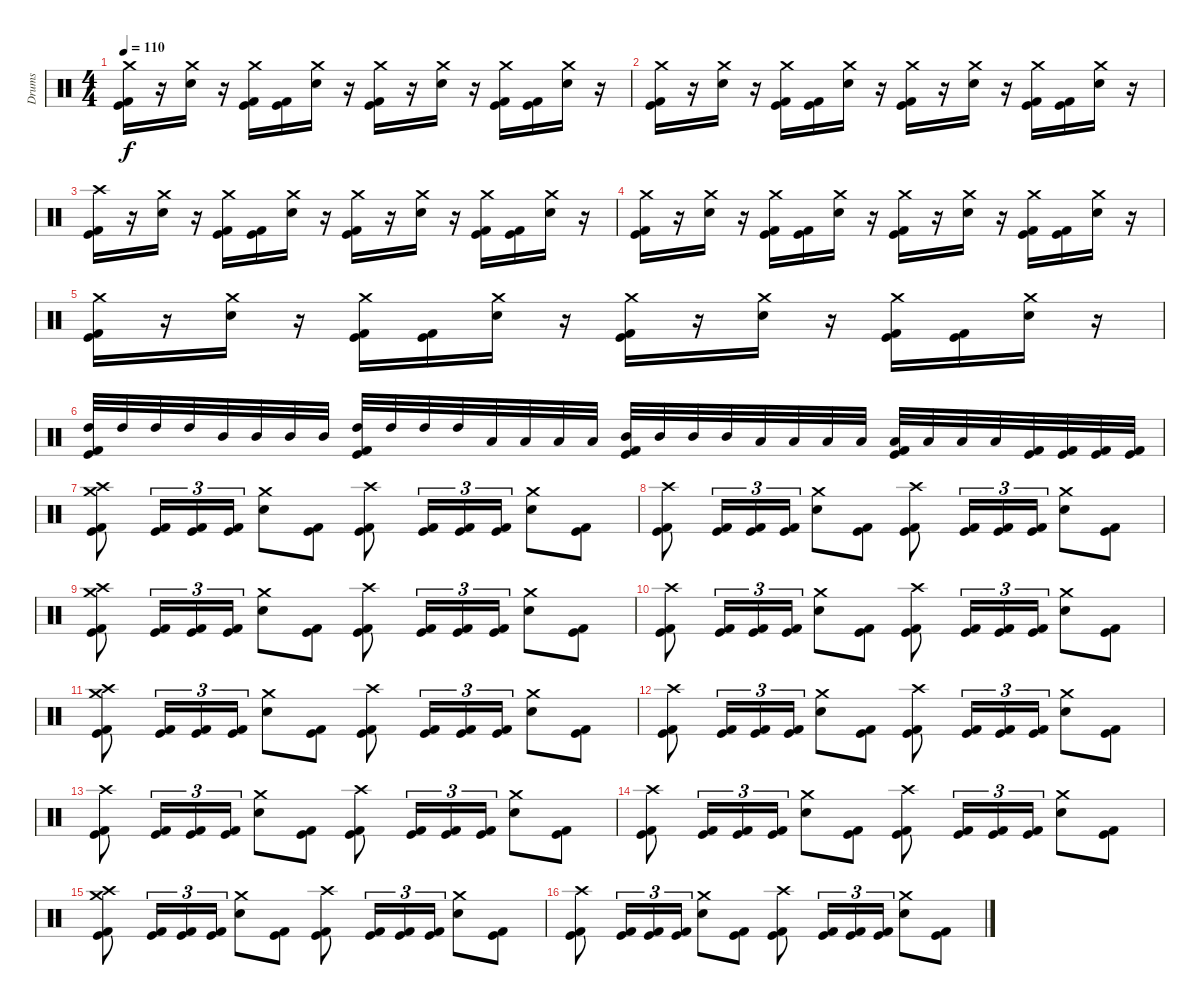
\track ("Drums" "Drums") {instrument percussion}
\staff {score}
\articulation defaults
\ts (4 4)
\tempo 110
\clef neutral
\ks c
("Crash medium (hit)" "Kick (hit)" "Kick (hit) 2").16{dy f} r.16 ("Crash medium (hit)" "Electric Snare (hit)").16 r.16 ("Crash medium (hit)" "Kick (hit)" "Kick (hit) 2").16 ("Kick (hit)" "Kick (hit) 2").16 ("Crash medium (hit)" "Electric Snare (hit)").16 r.16 ("Crash medium (hit)" "Kick (hit)" "Kick (hit) 2").16 r.16 ("Crash medium (hit)" "Electric Snare (hit)").16 r.16 ("Crash medium (hit)" "Kick (hit)" "Kick (hit) 2").16 ("Kick (hit)" "Kick (hit) 2").16 ("Crash medium (hit)" "Electric Snare (hit)").16 r.16 |
("Crash medium (hit)" "Kick (hit)" "Kick (hit) 2").16 r.16 ("Crash medium (hit)" "Electric Snare (hit)").16 r.16 ("Crash medium (hit)" "Kick (hit)" "Kick (hit) 2").16 ("Kick (hit)" "Kick (hit) 2").16 ("Crash medium (hit)" "Electric Snare (hit)").16 r.16 ("Crash medium (hit)" "Kick (hit)" "Kick (hit) 2").16 r.16 ("Crash medium (hit)" "Electric Snare (hit)").16 r.16 ("Crash medium (hit)" "Kick (hit)" "Kick (hit) 2").16 ("Kick (hit)" "Kick (hit) 2").16 ("Crash medium (hit)" "Electric Snare (hit)").16 r.16 |
("Crash high (hit)" "Kick (hit)" "Kick (hit) 2").16 r.16 ("Crash medium (hit)" "Electric Snare (hit)").16 r.16 ("Crash medium (hit)" "Kick (hit)" "Kick (hit) 2").16 ("Kick (hit)" "Kick (hit) 2").16 ("Crash medium (hit)" "Electric Snare (hit)").16 r.16 ("Crash medium (hit)" "Kick (hit)" "Kick (hit) 2").16 r.16 ("Crash medium (hit)" "Electric Snare (hit)").16 r.16 ("Crash medium (hit)" "Kick (hit)" "Kick (hit) 2").16 ("Kick (hit)" "Kick (hit) 2").16 ("Crash medium (hit)" "Electric Snare (hit)").16 r.16 |
("Crash medium (hit)" "Kick (hit)" "Kick (hit) 2").16 r.16 ("Crash medium (hit)" "Electric Snare (hit)").16 r.16 ("Crash medium (hit)" "Kick (hit)" "Kick (hit) 2").16 ("Kick (hit)" "Kick (hit) 2").16 ("Crash medium (hit)" "Electric Snare (hit)").16 r.16 ("Crash medium (hit)" "Kick (hit)" "Kick (hit) 2").16 r.16 ("Crash medium (hit)" "Electric Snare (hit)").16 r.16 ("Crash medium (hit)" "Kick (hit)" "Kick (hit) 2").16 ("Kick (hit)" "Kick (hit) 2").16 ("Crash medium (hit)" "Electric Snare (hit)").16 r.16 |
("Crash medium (hit)" "Kick (hit)" "Kick (hit) 2").16 r.16 ("Crash medium (hit)" "Electric Snare (hit)").16 r.16 ("Crash medium (hit)" "Kick (hit)" "Kick (hit) 2").16 ("Kick (hit)" "Kick (hit) 2").16 ("Crash medium (hit)" "Electric Snare (hit)").16 r.16 ("Crash medium (hit)" "Kick (hit)" "Kick (hit) 2").16 r.16 ("Crash medium (hit)" "Electric Snare (hit)").16 r.16 ("Crash medium (hit)" "Kick (hit)" "Kick (hit) 2").16 ("Kick (hit)" "Kick (hit) 2").16 ("Crash medium (hit)" "Electric Snare (hit)").16 r.16 |
("High Tom (hit)" "Kick (hit)" "Kick (hit) 2").32 "High Tom (hit)".32 "High Tom (hit)".32 "High Tom (hit)".32 "Mid Tom (hit)".32 "Mid Tom (hit)".32 "Mid Tom (hit)".32 "Mid Tom (hit)".32 ("High Tom (hit)" "Kick (hit)" "Kick (hit) 2").32 "High Tom (hit)".32 "High Tom (hit)".32 "High Tom (hit)".32 "Low Tom (hit)".32 "Low Tom (hit)".32 "Low Tom (hit)".32 "Low Tom (hit)".32 ("Mid Tom (hit)" "Kick (hit)" "Kick (hit) 2").32 "Mid Tom (hit)".32 "Mid Tom (hit)".32 "Mid Tom (hit)".32 "Low Floor Tom (hit)".32 "Low Floor Tom (hit)".32 "Low Floor Tom (hit)".32 "Low Floor Tom (hit)".32 ("Low Tom (hit)" "Kick (hit)" "Kick (hit) 2").32 "Low Tom (hit)".32 "Low Tom (hit)".32 "Low Tom (hit)".32 ("Kick (hit)" "Kick (hit) 2").32 ("Kick (hit)" "Kick (hit) 2").32 ("Kick (hit)" "Kick (hit) 2").32 ("Kick (hit)" "Kick (hit) 2").32 |
("Crash high (hit)" "Crash medium (hit)" "Kick (hit)" "Kick (hit) 2").8 ("Kick (hit)" "Kick (hit) 2").16{tu (3 2)} ("Kick (hit)" "Kick (hit) 2").16{tu (3 2)} ("Kick (hit)" "Kick (hit) 2").16{tu (3 2)} ("Crash medium (hit)" "Electric Snare (hit)").8 ("Kick (hit)" "Kick (hit) 2").8 ("Crash high (hit)" "Kick (hit)" "Kick (hit) 2").8 ("Kick (hit)" "Kick (hit) 2").16{tu (3 2)} ("Kick (hit)" "Kick (hit) 2").16{tu (3 2)} ("Kick (hit)" "Kick (hit) 2").16{tu (3 2)} ("Crash medium (hit)" "Electric Snare (hit)").8 ("Kick (hit)" "Kick (hit) 2").8 |
("Crash high (hit)" "Kick (hit)" "Kick (hit) 2").8 ("Kick (hit)" "Kick (hit) 2").16{tu (3 2)} ("Kick (hit)" "Kick (hit) 2").16{tu (3 2)} ("Kick (hit)" "Kick (hit) 2").16{tu (3 2)} ("Crash medium (hit)" "Electric Snare (hit)").8 ("Kick (hit)" "Kick (hit) 2").8 ("Crash high (hit)" "Kick (hit)" "Kick (hit) 2").8 ("Kick (hit)" "Kick (hit) 2").16{tu (3 2)} ("Kick (hit)" "Kick (hit) 2").16{tu (3 2)} ("Kick (hit)" "Kick (hit) 2").16{tu (3 2)} ("Crash medium (hit)" "Electric Snare (hit)").8 ("Kick (hit)" "Kick (hit) 2").8 |
("Crash high (hit)" "Crash medium (hit)" "Kick (hit)" "Kick (hit) 2").8 ("Kick (hit)" "Kick (hit) 2").16{tu (3 2)} ("Kick (hit)" "Kick (hit) 2").16{tu (3 2)} ("Kick (hit)" "Kick (hit) 2").16{tu (3 2)} ("Crash medium (hit)" "Electric Snare (hit)").8 ("Kick (hit)" "Kick (hit) 2").8 ("Crash high (hit)" "Kick (hit)" "Kick (hit) 2").8 ("Kick (hit)" "Kick (hit) 2").16{tu (3 2)} ("Kick (hit)" "Kick (hit) 2").16{tu (3 2)} ("Kick (hit)" "Kick (hit) 2").16{tu (3 2)} ("Crash medium (hit)" "Electric Snare (hit)").8 ("Kick (hit)" "Kick (hit) 2").8 |
("Crash high (hit)" "Kick (hit)" "Kick (hit) 2").8 ("Kick (hit)" "Kick (hit) 2").16{tu (3 2)} ("Kick (hit)" "Kick (hit) 2").16{tu (3 2)} ("Kick (hit)" "Kick (hit) 2").16{tu (3 2)} ("Crash medium (hit)" "Electric Snare (hit)").8 ("Kick (hit)" "Kick (hit) 2").8 ("Crash high (hit)" "Kick (hit)" "Kick (hit) 2").8 ("Kick (hit)" "Kick (hit) 2").16{tu (3 2)} ("Kick (hit)" "Kick (hit) 2").16{tu (3 2)} ("Kick (hit)" "Kick (hit) 2").16{tu (3 2)} ("Crash medium (hit)" "Electric Snare (hit)").8 ("Kick (hit)" "Kick (hit) 2").8 |
("Crash high (hit)" "Crash medium (hit)" "Kick (hit)" "Kick (hit) 2").8 ("Kick (hit)" "Kick (hit) 2").16{tu (3 2)} ("Kick (hit)" "Kick (hit) 2").16{tu (3 2)} ("Kick (hit)" "Kick (hit) 2").16{tu (3 2)} ("Crash medium (hit)" "Electric Snare (hit)").8 ("Kick (hit)" "Kick (hit) 2").8 ("Crash high (hit)" "Kick (hit)" "Kick (hit) 2").8 ("Kick (hit)" "Kick (hit) 2").16{tu (3 2)} ("Kick (hit)" "Kick (hit) 2").16{tu (3 2)} ("Kick (hit)" "Kick (hit) 2").16{tu (3 2)} ("Crash medium (hit)" "Electric Snare (hit)").8 ("Kick (hit)" "Kick (hit) 2").8 |
("Crash high (hit)" "Kick (hit)" "Kick (hit) 2").8 ("Kick (hit)" "Kick (hit) 2").16{tu (3 2)} ("Kick (hit)" "Kick (hit) 2").16{tu (3 2)} ("Kick (hit)" "Kick (hit) 2").16{tu (3 2)} ("Crash medium (hit)" "Electric Snare (hit)").8 ("Kick (hit)" "Kick (hit) 2").8 ("Crash high (hit)" "Kick (hit)" "Kick (hit) 2").8 ("Kick (hit)" "Kick (hit) 2").16{tu (3 2)} ("Kick (hit)" "Kick (hit) 2").16{tu (3 2)} ("Kick (hit)" "Kick (hit) 2").16{tu (3 2)} ("Crash medium (hit)" "Electric Snare (hit)").8 ("Kick (hit)" "Kick (hit) 2").8 |
("Crash high (hit)" "Kick (hit)" "Kick (hit) 2").8 ("Kick (hit)" "Kick (hit) 2").16{tu (3 2)} ("Kick (hit)" "Kick (hit) 2").16{tu (3 2)} ("Kick (hit)" "Kick (hit) 2").16{tu (3 2)} ("Crash medium (hit)" "Electric Snare (hit)").8 ("Kick (hit)" "Kick (hit) 2").8 ("Crash high (hit)" "Kick (hit)" "Kick (hit) 2").8 ("Kick (hit)" "Kick (hit) 2").16{tu (3 2)} ("Kick (hit)" "Kick (hit) 2").16{tu (3 2)} ("Kick (hit)" "Kick (hit) 2").16{tu (3 2)} ("Crash medium (hit)" "Electric Snare (hit)").8 ("Kick (hit)" "Kick (hit) 2").8 |
("Crash high (hit)" "Kick (hit)" "Kick (hit) 2").8 ("Kick (hit)" "Kick (hit) 2").16{tu (3 2)} ("Kick (hit)" "Kick (hit) 2").16{tu (3 2)} ("Kick (hit)" "Kick (hit) 2").16{tu (3 2)} ("Crash medium (hit)" "Electric Snare (hit)").8 ("Kick (hit)" "Kick (hit) 2").8 ("Crash high (hit)" "Kick (hit)" "Kick (hit) 2").8 ("Kick (hit)" "Kick (hit) 2").16{tu (3 2)} ("Kick (hit)" "Kick (hit) 2").16{tu (3 2)} ("Kick (hit)" "Kick (hit) 2").16{tu (3 2)} ("Crash medium (hit)" "Electric Snare (hit)").8 ("Kick (hit)" "Kick (hit) 2").8 |
("Crash high (hit)" "Crash medium (hit)" "Kick (hit)" "Kick (hit) 2").8 ("Kick (hit)" "Kick (hit) 2").16{tu (3 2)} ("Kick (hit)" "Kick (hit) 2").16{tu (3 2)} ("Kick (hit)" "Kick (hit) 2").16{tu (3 2)} ("Crash medium (hit)" "Electric Snare (hit)").8 ("Kick (hit)" "Kick (hit) 2").8 ("Crash high (hit)" "Kick (hit)" "Kick (hit) 2").8 ("Kick (hit)" "Kick (hit) 2").16{tu (3 2)} ("Kick (hit)" "Kick (hit) 2").16{tu (3 2)} ("Kick (hit)" "Kick (hit) 2").16{tu (3 2)} ("Crash medium (hit)" "Electric Snare (hit)").8 ("Kick (hit)" "Kick (hit) 2").8 |
("Crash high (hit)" "Kick (hit)" "Kick (hit) 2").8 ("Kick (hit)" "Kick (hit) 2").16{tu (3 2)} ("Kick (hit)" "Kick (hit) 2").16{tu (3 2)} ("Kick (hit)" "Kick (hit) 2").16{tu (3 2)} ("Crash medium (hit)" "Electric Snare (hit)").8 ("Kick (hit)" "Kick (hit) 2").8 ("Crash high (hit)" "Kick (hit)" "Kick (hit) 2").8 ("Kick (hit)" "Kick (hit) 2").16{tu (3 2)} ("Kick (hit)" "Kick (hit) 2").16{tu (3 2)} ("Kick (hit)" "Kick (hit) 2").16{tu (3 2)} ("Crash medium (hit)" "Electric Snare (hit)").8 ("Kick (hit)" "Kick (hit) 2").8
